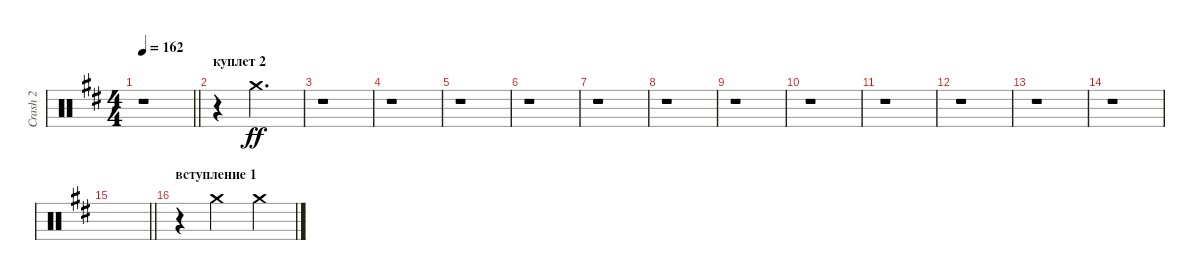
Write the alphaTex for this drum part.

\track ("Сrash 2" "Сrash 2") {instrument percussion}
\staff {score}
\articulation defaults
\ts (4 4)
\tempo 162
\clef neutral
\barLineRight lightlight
\ks bminor
r.1{dy ff} |
\section ("" "куплет 2")
r.4 "Crash medium (hit)".2{d} |
r.1 |
r.1 |
r.1 |
r.1 |
r.1 |
r.1 |
r.1 |
r.1 |
r.1 |
r.1 |
r.1 |
r.1 |
\barLineRight lightlight
|
\section ("" "вступление 1")
r.4 "Crash medium (hit)".2 "Crash medium (hit)".4
